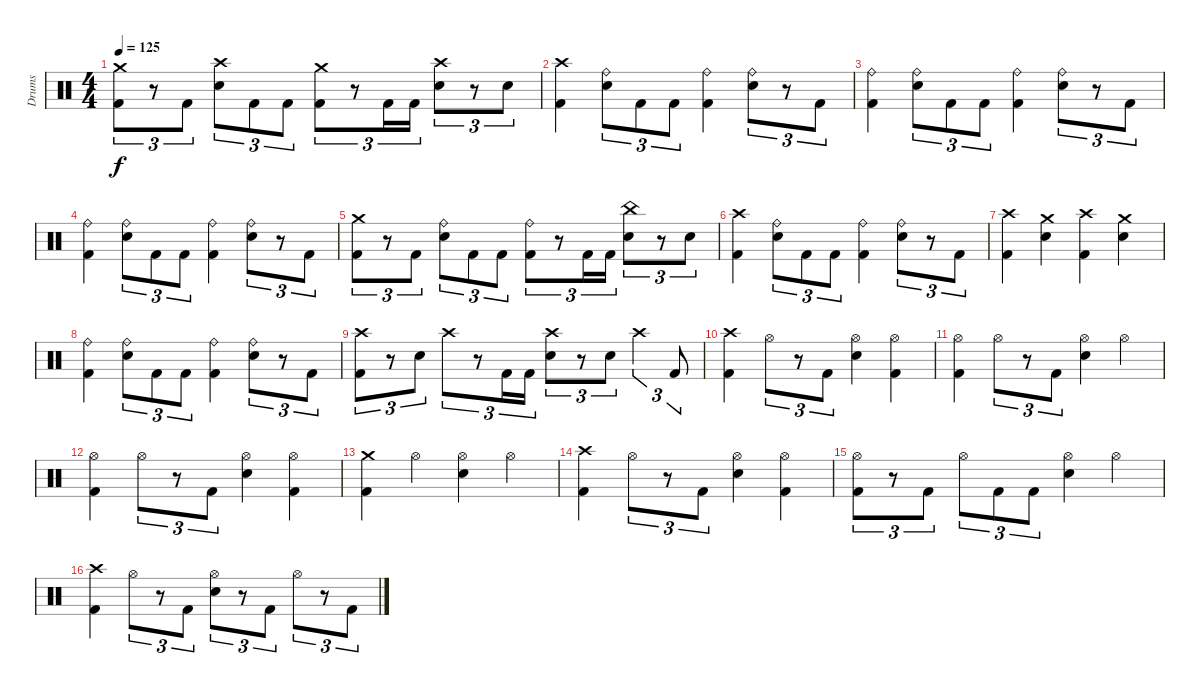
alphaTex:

\track ("Drums" "Drums") {instrument percussion}
\staff {score}
\articulation defaults
\ts (4 4)
\tempo 125
\clef neutral
\ks c
("Crash medium (hit)" "Kick (hit) 2").8{tu (3 2) dy f} r.8{tu (3 2)} "Kick (hit) 2".8{tu (3 2)} ("Crash high (hit)" "Electric Snare (hit)").8{tu (3 2)} "Kick (hit) 2".8{tu (3 2)} "Kick (hit) 2".8{tu (3 2)} ("Crash medium (hit)" "Kick (hit) 2").8{tu (3 2)} r.8{tu (3 2)} "Kick (hit) 2".16{tu (3 2)} "Kick (hit) 2".16{tu (3 2)} ("Crash high (hit)" "Electric Snare (hit)").8{tu (3 2)} r.8{tu (3 2)} "Electric Snare (hit)".8{tu (3 2)} |
("Crash high (hit)" "Kick (hit) 2").4 ("Ride (bell)" "Electric Snare (hit)").8{tu (3 2)} "Kick (hit) 2".8{tu (3 2)} "Kick (hit) 2".8{tu (3 2)} ("Ride (bell)" "Kick (hit) 2").4 ("Ride (bell)" "Electric Snare (hit)").8{tu (3 2)} r.8{tu (3 2)} "Kick (hit) 2".8{tu (3 2)} |
("Ride (bell)" "Kick (hit) 2").4 ("Ride (bell)" "Electric Snare (hit)").8{tu (3 2)} "Kick (hit) 2".8{tu (3 2)} "Kick (hit) 2".8{tu (3 2)} ("Ride (bell)" "Kick (hit) 2").4 ("Ride (bell)" "Electric Snare (hit)").8{tu (3 2)} r.8{tu (3 2)} "Kick (hit) 2".8{tu (3 2)} |
("Ride (bell)" "Kick (hit) 2").4 ("Ride (bell)" "Electric Snare (hit)").8{tu (3 2)} "Kick (hit) 2".8{tu (3 2)} "Kick (hit) 2".8{tu (3 2)} ("Ride (bell)" "Kick (hit) 2").4 ("Ride (bell)" "Electric Snare (hit)").8{tu (3 2)} r.8{tu (3 2)} "Kick (hit) 2".8{tu (3 2)} |
("Crash medium (hit)" "Kick (hit) 2").8{tu (3 2)} r.8{tu (3 2)} "Kick (hit) 2".8{tu (3 2)} ("Ride (bell)" "Electric Snare (hit)").8{tu (3 2)} "Kick (hit) 2".8{tu (3 2)} "Kick (hit) 2".8{tu (3 2)} ("Ride (bell)" "Kick (hit) 2").8{tu (3 2)} r.8{tu (3 2)} "Kick (hit) 2".16{tu (3 2)} "Kick (hit) 2".16{tu (3 2)} ("China (hit)" "Electric Snare (hit)").8{tu (3 2)} r.8{tu (3 2)} "Electric Snare (hit)".8{tu (3 2)} |
("Crash high (hit)" "Kick (hit) 2").4 ("Ride (bell)" "Electric Snare (hit)").8{tu (3 2)} "Kick (hit) 2".8{tu (3 2)} "Kick (hit) 2".8{tu (3 2)} ("Ride (bell)" "Kick (hit) 2").4 ("Ride (bell)" "Electric Snare (hit)").8{tu (3 2)} r.8{tu (3 2)} "Kick (hit) 2".8{tu (3 2)} |
("Crash high (hit)" "Kick (hit) 2").4 ("Crash medium (hit)" "Electric Snare (hit)").4 ("Crash high (hit)" "Kick (hit) 2").4 ("Crash medium (hit)" "Electric Snare (hit)").4 |
("Ride (bell)" "Kick (hit) 2").4 ("Ride (bell)" "Electric Snare (hit)").8{tu (3 2)} "Kick (hit) 2".8{tu (3 2)} "Kick (hit) 2".8{tu (3 2)} ("Ride (bell)" "Kick (hit) 2").4 ("Ride (bell)" "Electric Snare (hit)").8{tu (3 2)} r.8{tu (3 2)} "Kick (hit) 2".8{tu (3 2)} |
("Crash high (hit)" "Kick (hit) 2").8{tu (3 2)} r.8{tu (3 2)} "Electric Snare (hit)".8{tu (3 2)} "Crash high (hit)".8{tu (3 2)} r.8{tu (3 2)} "Kick (hit) 2".16{tu (3 2)} "Kick (hit) 2".16{tu (3 2)} ("Crash high (hit)" "Electric Snare (hit)").8{tu (3 2)} r.8{tu (3 2)} "Electric Snare (hit)".8{tu (3 2)} "Crash high (hit)".4{tu (3 2)} "Kick (hit) 2".8{tu (3 2)} |
("Crash high (hit)" "Kick (hit) 2").4 "Hi-Hat (open)".8{tu (3 2)} r.8{tu (3 2)} "Kick (hit) 2".8{tu (3 2)} ("Hi-Hat (open)" "Electric Snare (hit)").4 ("Hi-Hat (open)" "Kick (hit) 2").4 |
("Hi-Hat (open)" "Kick (hit) 2").4 "Hi-Hat (open)".8{tu (3 2)} r.8{tu (3 2)} "Kick (hit) 2".8{tu (3 2)} ("Hi-Hat (open)" "Electric Snare (hit)").4 "Hi-Hat (open)".4 |
("Hi-Hat (open)" "Kick (hit) 2").4 "Hi-Hat (open)".8{tu (3 2)} r.8{tu (3 2)} "Kick (hit) 2".8{tu (3 2)} ("Hi-Hat (open)" "Electric Snare (hit)").4 ("Hi-Hat (open)" "Kick (hit) 2").4 |
("Crash medium (hit)" "Kick (hit) 2").4 "Hi-Hat (open)".4 ("Hi-Hat (open)" "Electric Snare (hit)").4 "Hi-Hat (open)".4 |
("Crash high (hit)" "Kick (hit) 2").4 "Hi-Hat (open)".8{tu (3 2)} r.8{tu (3 2)} "Kick (hit) 2".8{tu (3 2)} ("Hi-Hat (open)" "Electric Snare (hit)").4 ("Hi-Hat (open)" "Kick (hit) 2").4 |
("Hi-Hat (open)" "Kick (hit) 2").8{tu (3 2)} r.8{tu (3 2)} "Kick (hit) 2".8{tu (3 2)} "Hi-Hat (open)".8{tu (3 2)} "Kick (hit) 2".8{tu (3 2)} "Kick (hit) 2".8{tu (3 2)} ("Hi-Hat (open)" "Electric Snare (hit)").4 "Hi-Hat (open)".4 |
("Crash high (hit)" "Kick (hit) 2").4 "Hi-Hat (open)".8{tu (3 2)} r.8{tu (3 2)} "Kick (hit) 2".8{tu (3 2)} ("Hi-Hat (open)" "Electric Snare (hit)").8{tu (3 2)} r.8{tu (3 2)} "Kick (hit) 2".8{tu (3 2)} "Hi-Hat (open)".8{tu (3 2)} r.8{tu (3 2)} "Kick (hit) 2".8{tu (3 2)}
